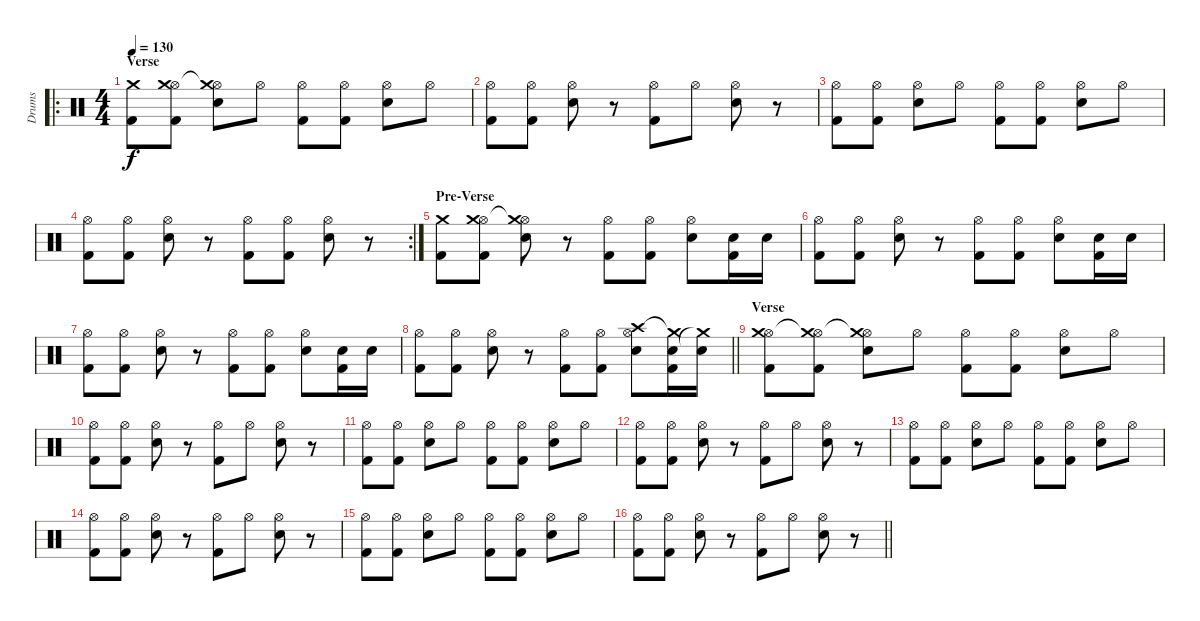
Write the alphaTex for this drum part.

\track ("Drums" "Drums") {instrument percussion}
\staff {score}
\articulation defaults
\ro
\ts (4 4)
\section ("" "Verse")
\tempo 130
\clef neutral
\ks c
("Kick (hit) 2" "Crash medium (hit)").8{dy f} ("Kick (hit) 2" "Hi-Hat (open)" "Crash medium (hit)"{t}).8 ("Snare (hit) 2" "Hi-Hat (open)" "Crash medium (hit)"{t}).8 "Hi-Hat (open)".8 ("Kick (hit) 2" "Hi-Hat (open)").8 ("Kick (hit) 2" "Hi-Hat (open)").8 ("Snare (hit) 2" "Hi-Hat (open)").8 "Hi-Hat (open)".8 |
("Kick (hit) 2" "Hi-Hat (open)").8 ("Kick (hit) 2" "Hi-Hat (open)").8 ("Snare (hit) 2" "Hi-Hat (open)").8 r.8 ("Kick (hit) 2" "Hi-Hat (open)").8 "Hi-Hat (open)".8 ("Snare (hit) 2" "Hi-Hat (open)").8 r.8 |
("Kick (hit) 2" "Hi-Hat (open)").8 ("Kick (hit) 2" "Hi-Hat (open)").8 ("Snare (hit) 2" "Hi-Hat (open)").8 "Hi-Hat (open)".8 ("Kick (hit) 2" "Hi-Hat (open)").8 ("Kick (hit) 2" "Hi-Hat (open)").8 ("Snare (hit) 2" "Hi-Hat (open)").8 "Hi-Hat (open)".8 |
\rc 2
("Kick (hit) 2" "Hi-Hat (open)").8 ("Kick (hit) 2" "Hi-Hat (open)").8 ("Snare (hit) 2" "Hi-Hat (open)").8 r.8 ("Kick (hit) 2" "Hi-Hat (open)").8 ("Kick (hit) 2" "Hi-Hat (open)").8 ("Snare (hit) 2" "Hi-Hat (open)").8 r.8 |
\section ("" "Pre-Verse")
("Kick (hit) 2" "Crash medium (hit)").8 ("Kick (hit) 2" "Hi-Hat (open)" "Crash medium (hit)").8 ("Snare (hit) 2" "Hi-Hat (open)" "Crash medium (hit)"{t}).8 r.8 ("Kick (hit) 2" "Hi-Hat (open)").8 ("Kick (hit) 2" "Hi-Hat (open)").8 ("Snare (hit) 2" "Hi-Hat (open)").8 ("Kick (hit) 2" "Snare (hit) 2").16 "Snare (hit) 2".16 |
("Kick (hit) 2" "Hi-Hat (open)").8 ("Kick (hit) 2" "Hi-Hat (open)").8 ("Snare (hit) 2" "Hi-Hat (open)").8 r.8 ("Kick (hit) 2" "Hi-Hat (open)").8 ("Kick (hit) 2" "Hi-Hat (open)").8 ("Snare (hit) 2" "Hi-Hat (open)").8 ("Kick (hit) 2" "Snare (hit) 2").16 "Snare (hit) 2".16 |
("Kick (hit) 2" "Hi-Hat (open)").8 ("Kick (hit) 2" "Hi-Hat (open)").8 ("Snare (hit) 2" "Hi-Hat (open)").8 r.8 ("Kick (hit) 2" "Hi-Hat (open)").8 ("Kick (hit) 2" "Hi-Hat (open)").8 ("Snare (hit) 2" "Hi-Hat (open)").8 ("Kick (hit) 2" "Snare (hit) 2").16 "Snare (hit) 2".16 |
\barLineRight lightlight
("Kick (hit) 2" "Hi-Hat (open)").8 ("Kick (hit) 2" "Hi-Hat (open)").8 ("Snare (hit) 2" "Hi-Hat (open)").8 r.8 ("Kick (hit) 2" "Hi-Hat (open)").8 ("Kick (hit) 2" "Hi-Hat (open)").8 ("Snare (hit) 2" "Hi-Hat (open)" "Crash high (hit)").8 ("Kick (hit) 2" "Snare (hit) 2" "Crash medium (hit)"{t}).16 ("Snare (hit) 2" "Crash medium (hit)"{t}).16 |
\section ("" "Verse")
("Kick (hit) 2" "Hi-Hat (open)" "Crash medium (hit)").8 ("Kick (hit) 2" "Hi-Hat (open)" "Crash medium (hit)"{t}).8 ("Snare (hit) 2" "Hi-Hat (open)" "Crash medium (hit)"{t}).8 "Hi-Hat (open)".8 ("Kick (hit) 2" "Hi-Hat (open)").8 ("Kick (hit) 2" "Hi-Hat (open)").8 ("Snare (hit) 2" "Hi-Hat (open)").8 "Hi-Hat (open)".8 |
("Kick (hit) 2" "Hi-Hat (open)").8 ("Kick (hit) 2" "Hi-Hat (open)").8 ("Snare (hit) 2" "Hi-Hat (open)").8 r.8 ("Kick (hit) 2" "Hi-Hat (open)").8 "Hi-Hat (open)".8 ("Snare (hit) 2" "Hi-Hat (open)").8 r.8 |
("Kick (hit) 2" "Hi-Hat (open)").8 ("Kick (hit) 2" "Hi-Hat (open)").8 ("Snare (hit) 2" "Hi-Hat (open)").8 "Hi-Hat (open)".8 ("Kick (hit) 2" "Hi-Hat (open)").8 ("Kick (hit) 2" "Hi-Hat (open)").8 ("Snare (hit) 2" "Hi-Hat (open)").8 "Hi-Hat (open)".8 |
("Kick (hit) 2" "Hi-Hat (open)").8 ("Kick (hit) 2" "Hi-Hat (open)").8 ("Snare (hit) 2" "Hi-Hat (open)").8 r.8 ("Kick (hit) 2" "Hi-Hat (open)").8 "Hi-Hat (open)".8 ("Snare (hit) 2" "Hi-Hat (open)").8 r.8 |
("Kick (hit) 2" "Hi-Hat (open)").8 ("Kick (hit) 2" "Hi-Hat (open)").8 ("Snare (hit) 2" "Hi-Hat (open)").8 "Hi-Hat (open)".8 ("Kick (hit) 2" "Hi-Hat (open)").8 ("Kick (hit) 2" "Hi-Hat (open)").8 ("Snare (hit) 2" "Hi-Hat (open)").8 "Hi-Hat (open)".8 |
("Kick (hit) 2" "Hi-Hat (open)").8 ("Kick (hit) 2" "Hi-Hat (open)").8 ("Snare (hit) 2" "Hi-Hat (open)").8 r.8 ("Kick (hit) 2" "Hi-Hat (open)").8 "Hi-Hat (open)".8 ("Snare (hit) 2" "Hi-Hat (open)").8 r.8 |
("Kick (hit) 2" "Hi-Hat (open)").8 ("Kick (hit) 2" "Hi-Hat (open)").8 ("Snare (hit) 2" "Hi-Hat (open)").8 "Hi-Hat (open)".8 ("Kick (hit) 2" "Hi-Hat (open)").8 ("Kick (hit) 2" "Hi-Hat (open)").8 ("Snare (hit) 2" "Hi-Hat (open)").8 "Hi-Hat (open)".8 |
\barLineRight lightlight
("Kick (hit) 2" "Hi-Hat (open)").8 ("Kick (hit) 2" "Hi-Hat (open)").8 ("Snare (hit) 2" "Hi-Hat (open)").8 r.8 ("Kick (hit) 2" "Hi-Hat (open)").8 "Hi-Hat (open)".8 ("Snare (hit) 2" "Hi-Hat (open)").8 r.8
